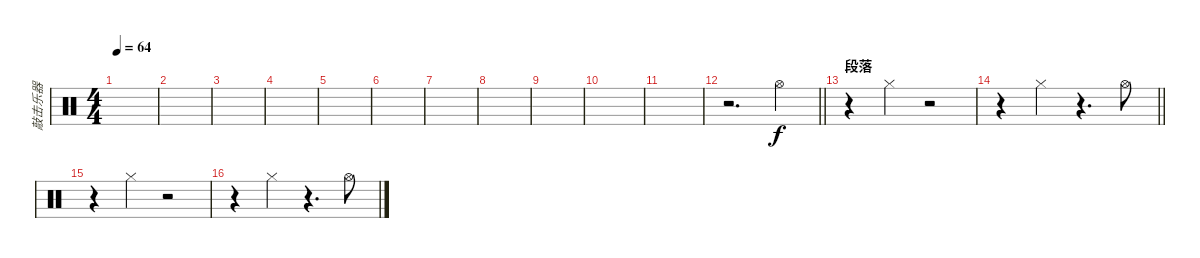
\track ("敲击乐器" "敲击乐器") {instrument percussion}
\staff {score}
\articulation defaults
\ts (4 4)
\tempo 64
\clef neutral
\ks c
|
|
|
|
|
|
|
|
|
|
|
\barLineRight lightlight
r.2{d} "Hi-Hat (open)".4 |
\section ("" "段落 ")
r.4 "Hi-Hat (closed)".4 r.2 |
\barLineRight lightlight
r.4 "Hi-Hat (closed)".4 r.4{d} "Hi-Hat (open)".8 |
r.4 "Hi-Hat (closed)".4 r.2 |
r.4 "Hi-Hat (closed)".4 r.4{d} "Hi-Hat (open)".8
